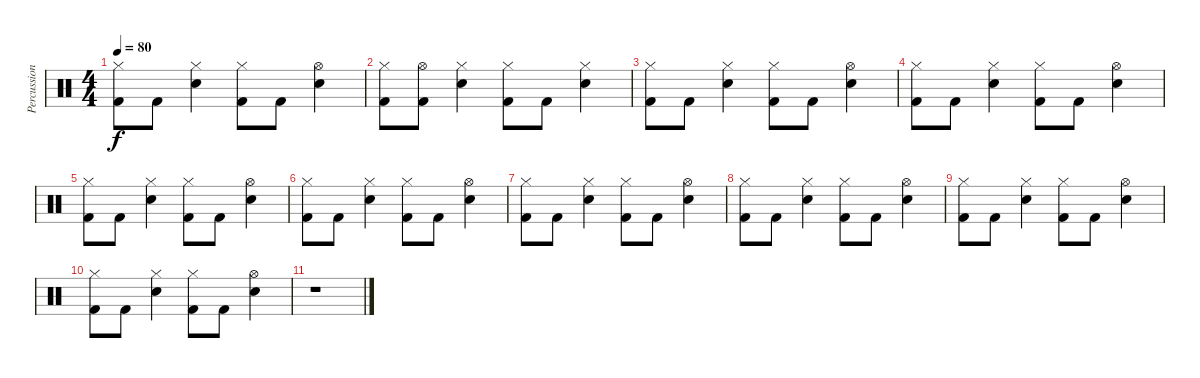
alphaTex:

\track ("Percussion" "Percussion") {instrument percussion}
\staff {score}
\articulation defaults
\ts (4 4)
\tempo 80
\clef neutral
\ks c
("Hi-Hat (closed)" "Kick (hit) 2").8{dy f} "Kick (hit) 2".8 ("Hi-Hat (closed)" "Snare (hit) 2").4 ("Hi-Hat (closed)" "Kick (hit) 2").8 "Kick (hit) 2".8 ("Hi-Hat (open)" "Snare (hit) 2").4 |
("Hi-Hat (closed)" "Kick (hit) 2").8 ("Hi-Hat (open)" "Kick (hit) 2").8 ("Hi-Hat (closed)" "Snare (hit) 2").4 ("Hi-Hat (closed)" "Kick (hit) 2").8 "Kick (hit) 2".8 ("Hi-Hat (closed)" "Snare (hit) 2").4 |
("Hi-Hat (closed)" "Kick (hit) 2").8 "Kick (hit) 2".8 ("Hi-Hat (closed)" "Snare (hit) 2").4 ("Hi-Hat (closed)" "Kick (hit) 2").8 "Kick (hit) 2".8 ("Hi-Hat (open)" "Snare (hit) 2").4 |
("Hi-Hat (closed)" "Kick (hit) 2").8 "Kick (hit) 2".8 ("Hi-Hat (closed)" "Snare (hit) 2").4 ("Hi-Hat (closed)" "Kick (hit) 2").8 "Kick (hit) 2".8 ("Hi-Hat (open)" "Snare (hit) 2").4 |
("Hi-Hat (closed)" "Kick (hit) 2").8 "Kick (hit) 2".8 ("Hi-Hat (closed)" "Snare (hit) 2").4 ("Hi-Hat (closed)" "Kick (hit) 2").8 "Kick (hit) 2".8 ("Hi-Hat (open)" "Snare (hit) 2").4 |
("Hi-Hat (closed)" "Kick (hit) 2").8 "Kick (hit) 2".8 ("Hi-Hat (closed)" "Snare (hit) 2").4 ("Hi-Hat (closed)" "Kick (hit) 2").8 "Kick (hit) 2".8 ("Hi-Hat (open)" "Snare (hit) 2").4 |
("Hi-Hat (closed)" "Kick (hit) 2").8 "Kick (hit) 2".8 ("Hi-Hat (closed)" "Snare (hit) 2").4 ("Hi-Hat (closed)" "Kick (hit) 2").8 "Kick (hit) 2".8 ("Hi-Hat (open)" "Snare (hit) 2").4 |
("Hi-Hat (closed)" "Kick (hit) 2").8 "Kick (hit) 2".8 ("Hi-Hat (closed)" "Snare (hit) 2").4 ("Hi-Hat (closed)" "Kick (hit) 2").8 "Kick (hit) 2".8 ("Hi-Hat (open)" "Snare (hit) 2").4 |
("Hi-Hat (closed)" "Kick (hit) 2").8 "Kick (hit) 2".8 ("Hi-Hat (closed)" "Snare (hit) 2").4 ("Hi-Hat (closed)" "Kick (hit) 2").8 "Kick (hit) 2".8 ("Hi-Hat (open)" "Snare (hit) 2").4 |
("Hi-Hat (closed)" "Kick (hit) 2").8 "Kick (hit) 2".8 ("Hi-Hat (closed)" "Snare (hit) 2").4 ("Hi-Hat (closed)" "Kick (hit) 2").8 "Kick (hit) 2".8 ("Hi-Hat (open)" "Snare (hit) 2").4 |
r.1
